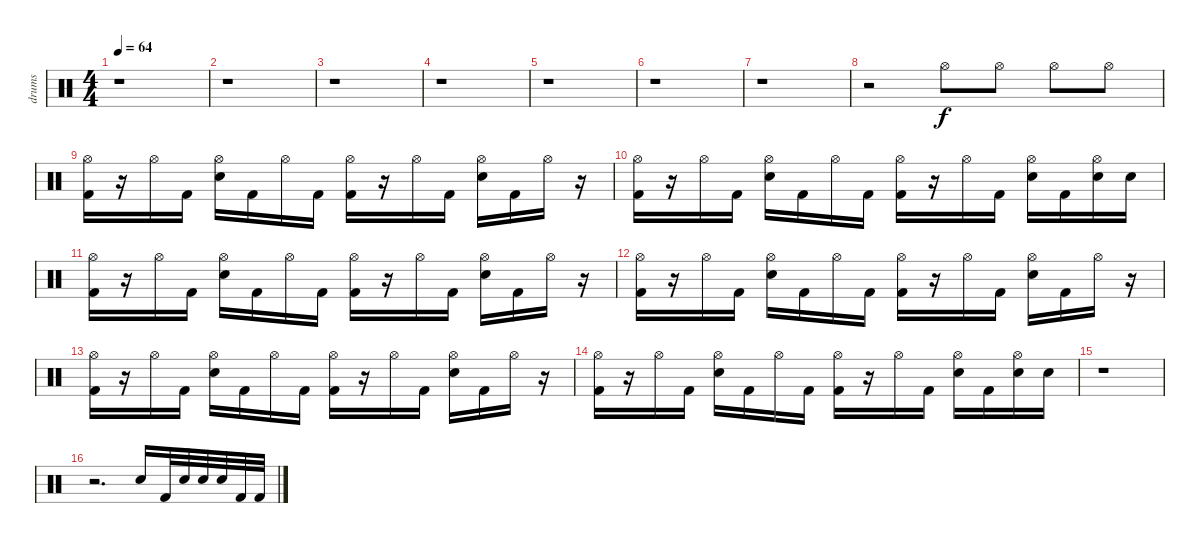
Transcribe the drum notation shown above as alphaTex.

\track ("drums" "drums") {instrument percussion}
\staff {score}
\articulation defaults
\ts (4 4)
\tempo 64
\clef neutral
\ks c
r.1{dy f} |
r.1 |
r.1 |
r.1 |
r.1 |
r.1 |
r.1 |
r.2 "Hi-Hat (open)".8 "Hi-Hat (open)".8 "Hi-Hat (open)".8 "Hi-Hat (open)".8 |
("Hi-Hat (open)" "Kick (hit) 2").16 r.16 "Hi-Hat (open)".16 "Kick (hit) 2".16 ("Snare (hit) 2" "Hi-Hat (open)").16 "Kick (hit) 2".16 "Hi-Hat (open)".16 "Kick (hit) 2".16 ("Hi-Hat (open)" "Kick (hit) 2").16 r.16 "Hi-Hat (open)".16 "Kick (hit) 2".16 ("Snare (hit) 2" "Hi-Hat (open)").16 "Kick (hit) 2".16 "Hi-Hat (open)".16 r.16 |
("Hi-Hat (open)" "Kick (hit) 2").16 r.16 "Hi-Hat (open)".16 "Kick (hit) 2".16 ("Snare (hit) 2" "Hi-Hat (open)").16 "Kick (hit) 2".16 "Hi-Hat (open)".16 "Kick (hit) 2".16 ("Hi-Hat (open)" "Kick (hit) 2").16 r.16 "Hi-Hat (open)".16 "Kick (hit) 2".16 ("Snare (hit) 2" "Hi-Hat (open)").16 "Kick (hit) 2".16 ("Snare (hit) 2" "Hi-Hat (open)").16 "Snare (hit) 2".16 |
("Hi-Hat (open)" "Kick (hit) 2").16 r.16 "Hi-Hat (open)".16 "Kick (hit) 2".16 ("Snare (hit) 2" "Hi-Hat (open)").16 "Kick (hit) 2".16 "Hi-Hat (open)".16 "Kick (hit) 2".16 ("Hi-Hat (open)" "Kick (hit) 2").16 r.16 "Hi-Hat (open)".16 "Kick (hit) 2".16 ("Snare (hit) 2" "Hi-Hat (open)").16 "Kick (hit) 2".16 "Hi-Hat (open)".16 r.16 |
("Hi-Hat (open)" "Kick (hit) 2").16 r.16 "Hi-Hat (open)".16 "Kick (hit) 2".16 ("Snare (hit) 2" "Hi-Hat (open)").16 "Kick (hit) 2".16 "Hi-Hat (open)".16 "Kick (hit) 2".16 ("Hi-Hat (open)" "Kick (hit) 2").16 r.16 "Hi-Hat (open)".16 "Kick (hit) 2".16 ("Snare (hit) 2" "Hi-Hat (open)").16 "Kick (hit) 2".16 "Hi-Hat (open)".16 r.16 |
("Hi-Hat (open)" "Kick (hit) 2").16 r.16 "Hi-Hat (open)".16 "Kick (hit) 2".16 ("Snare (hit) 2" "Hi-Hat (open)").16 "Kick (hit) 2".16 "Hi-Hat (open)".16 "Kick (hit) 2".16 ("Hi-Hat (open)" "Kick (hit) 2").16 r.16 "Hi-Hat (open)".16 "Kick (hit) 2".16 ("Snare (hit) 2" "Hi-Hat (open)").16 "Kick (hit) 2".16 "Hi-Hat (open)".16 r.16 |
("Hi-Hat (open)" "Kick (hit) 2").16 r.16 "Hi-Hat (open)".16 "Kick (hit) 2".16 ("Snare (hit) 2" "Hi-Hat (open)").16 "Kick (hit) 2".16 "Hi-Hat (open)".16 "Kick (hit) 2".16 ("Hi-Hat (open)" "Kick (hit) 2").16 r.16 "Hi-Hat (open)".16 "Kick (hit) 2".16 ("Snare (hit) 2" "Hi-Hat (open)").16 "Kick (hit) 2".16 ("Snare (hit) 2" "Hi-Hat (open)").16 "Snare (hit) 2".16 |
r.1 |
r.2{d} "Snare (hit) 2".16 "Kick (hit) 2".32 "Snare (hit) 2".32 "Snare (hit) 2".32 "Snare (hit) 2".32 "Kick (hit) 2".32 "Kick (hit) 2".32
